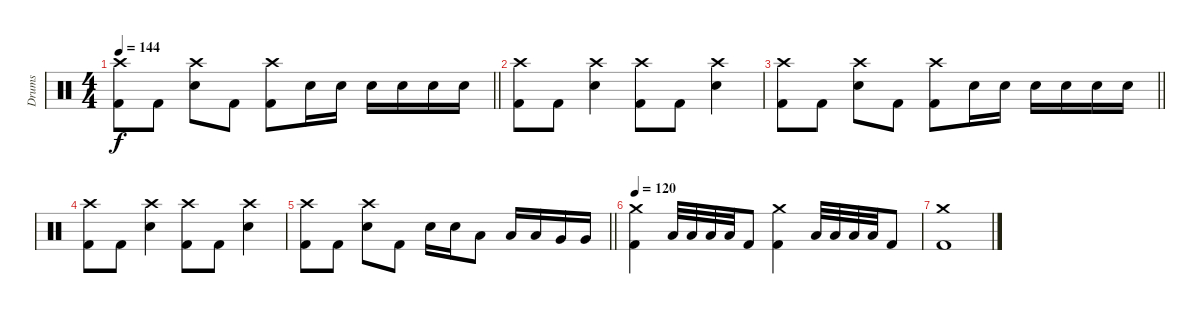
\track ("Drums" "Drums") {instrument percussion}
\staff {score}
\articulation defaults
\ts (4 4)
\tempo 144
\clef neutral
\barLineRight lightlight
\ks c
("Crash high (hit)" "Kick (hit) 2").8{dy f} "Kick (hit) 2".8 ("Crash high (hit)" "Electric Snare (hit)").8 "Kick (hit) 2".8 ("Crash high (hit)" "Kick (hit) 2").8 "Electric Snare (hit)".16 "Electric Snare (hit)".16 "Electric Snare (hit)".16 "Electric Snare (hit)".16 "Electric Snare (hit)".16 "Electric Snare (hit)".16 |
("Crash high (hit)" "Kick (hit) 2").8 "Kick (hit) 2".8 ("Crash high (hit)" "Electric Snare (hit)").4 ("Crash high (hit)" "Kick (hit) 2").8 "Kick (hit) 2".8 ("Crash high (hit)" "Electric Snare (hit)").4 |
\barLineRight lightlight
("Crash high (hit)" "Kick (hit) 2").8 "Kick (hit) 2".8 ("Crash high (hit)" "Electric Snare (hit)").8 "Kick (hit) 2".8 ("Crash high (hit)" "Kick (hit) 2").8 "Electric Snare (hit)".16 "Electric Snare (hit)".16 "Electric Snare (hit)".16 "Electric Snare (hit)".16 "Electric Snare (hit)".16 "Electric Snare (hit)".16 |
("Crash high (hit)" "Kick (hit) 2").8 "Kick (hit) 2".8 ("Crash high (hit)" "Electric Snare (hit)").4 ("Crash high (hit)" "Kick (hit) 2").8 "Kick (hit) 2".8 ("Crash high (hit)" "Electric Snare (hit)").4 |
\barLineRight lightlight
("Crash high (hit)" "Kick (hit) 2").8 "Kick (hit) 2".8 ("Crash high (hit)" "Electric Snare (hit)").8 "Kick (hit) 2".8 "Electric Snare (hit)".16 "Electric Snare (hit)".16 "Low Tom (hit)".8 "Low Tom (hit)".16 "Low Tom (hit)".16 "Very Low Tom (hit)".16 "Very Low Tom (hit)".16 |
\tempo 120
("Crash medium (hit)" "Kick (hit) 2").4 "Low Tom (hit)".32 "Low Tom (hit)".32 "Low Tom (hit)".32 "Low Tom (hit)".32 "Kick (hit) 2".8 ("Crash medium (hit)" "Kick (hit) 2").4 "Low Floor Tom (hit)".32 "Low Floor Tom (hit)".32 "Low Floor Tom (hit)".32 "Low Floor Tom (hit)".32 "Kick (hit) 2".8 |
("Crash medium (hit)" "Kick (hit) 2").1
